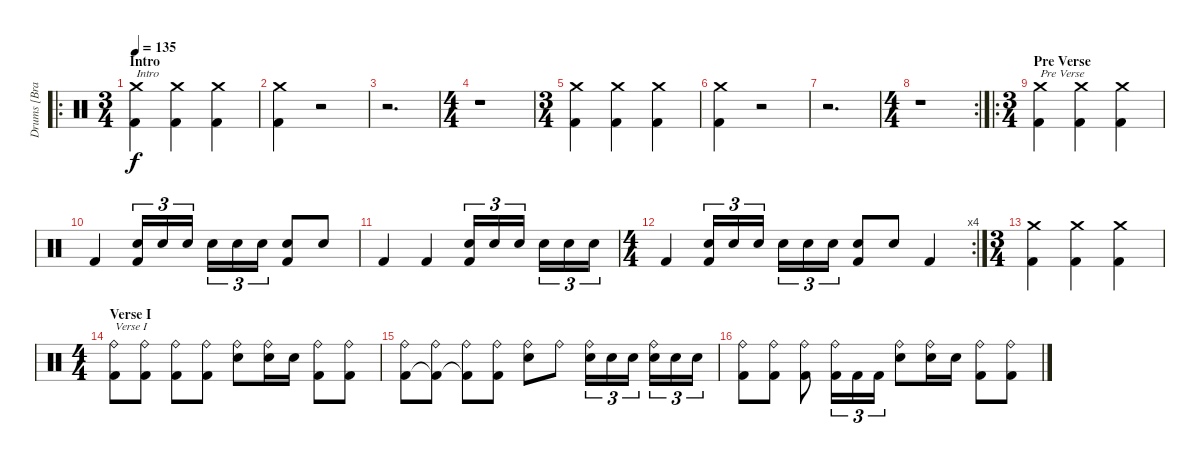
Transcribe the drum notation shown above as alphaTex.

\track ("Drums [Bran Dailor]" "Drums [Bra") {instrument percussion}
\staff {score}
\articulation defaults
\ro
\ts (3 4)
\section ("" "Intro")
\tempo 135
\clef neutral
\ks c
("Crash medium (hit)" "Kick (hit) 2").4{txt "Intro" dy f} ("Crash medium (hit)" "Kick (hit) 2").4 ("Crash medium (hit)" "Kick (hit) 2").4 |
("Crash medium (hit)" "Kick (hit) 2").4{volume 0} r.2 |
r.2{d} |
\ts (4 4)
r.1 |
\ts (3 4)
("Crash medium (hit)" "Kick (hit) 2").4{volume 14} ("Crash medium (hit)" "Kick (hit) 2").4 ("Crash medium (hit)" "Kick (hit) 2").4 |
("Crash medium (hit)" "Kick (hit) 2").4 r.2 |
r.2{d} |
\rc 2
\ts (4 4)
r.1 |
\ro
\ts (3 4)
\section ("" "Pre Verse")
("Crash medium (hit)" "Kick (hit) 2").4{txt "Pre Verse"} ("Crash medium (hit)" "Kick (hit) 2").4 ("Crash medium (hit)" "Kick (hit) 2").4 |
"Kick (hit) 2".4 ("Electric Snare (hit)" "Kick (hit) 2").16{tu (3 2)} "Electric Snare (hit)".16{tu (3 2)} "Electric Snare (hit)".16{tu (3 2)} "Electric Snare (hit)".16{tu (3 2)} "Electric Snare (hit)".16{tu (3 2)} "Electric Snare (hit)".16{tu (3 2)} ("Electric Snare (hit)" "Kick (hit) 2").8 "Electric Snare (hit)".8 |
"Kick (hit) 2".4 "Kick (hit) 2".4 ("Electric Snare (hit)" "Kick (hit) 2").16{tu (3 2)} "Electric Snare (hit)".16{tu (3 2)} "Electric Snare (hit)".16{tu (3 2)} "Electric Snare (hit)".16{tu (3 2)} "Electric Snare (hit)".16{tu (3 2)} "Electric Snare (hit)".16{tu (3 2)} |
\rc 4
\ts (4 4)
"Kick (hit) 2".4 ("Electric Snare (hit)" "Kick (hit) 2").16{tu (3 2)} "Electric Snare (hit)".16{tu (3 2)} "Electric Snare (hit)".16{tu (3 2)} "Electric Snare (hit)".16{tu (3 2)} "Electric Snare (hit)".16{tu (3 2)} "Electric Snare (hit)".16{tu (3 2)} ("Electric Snare (hit)" "Kick (hit) 2").8 "Electric Snare (hit)".8 "Kick (hit) 2".4 |
\ts (3 4)
("Crash medium (hit)" "Kick (hit) 2").4 ("Crash medium (hit)" "Kick (hit) 2").4 ("Crash medium (hit)" "Kick (hit) 2").4 |
\ts (4 4)
\section ("" "Verse I")
("Ride (bell)" "Kick (hit) 2").8{txt "Verse I"} ("Ride (bell)" "Kick (hit) 2").8 ("Ride (bell)" "Kick (hit) 2").8 ("Ride (bell)" "Kick (hit) 2").8 ("Ride (bell)" "Electric Snare (hit)").8 ("Ride (bell)" "Electric Snare (hit)").16 "Electric Snare (hit)".16 ("Ride (bell)" "Kick (hit) 2").8 ("Ride (bell)" "Kick (hit) 2").8 |
("Ride (bell)" "Kick (hit) 2").8 ("Ride (bell)" "Kick (hit) 2"{t}).8 ("Ride (bell)" "Kick (hit) 2"{t}).8 ("Ride (bell)" "Kick (hit) 2").8 ("Ride (bell)" "Electric Snare (hit)").8 "Ride (bell)".8 ("Ride (bell)" "Electric Snare (hit)").16{tu (3 2)} "Electric Snare (hit)".16{tu (3 2)} "Electric Snare (hit)".16{tu (3 2)} ("Ride (bell)" "Electric Snare (hit)").16{tu (3 2)} "Electric Snare (hit)".16{tu (3 2)} "Electric Snare (hit)".16{tu (3 2)} |
("Ride (bell)" "Kick (hit) 2").8 ("Ride (bell)" "Kick (hit) 2").8 ("Ride (bell)" "Kick (hit) 2").8 ("Ride (bell)" "Kick (hit) 2").16{tu (3 2)} "Kick (hit) 2".16{tu (3 2)} "Kick (hit) 2".16{tu (3 2)} ("Ride (bell)" "Electric Snare (hit)").8 ("Ride (bell)" "Electric Snare (hit)").16 "Electric Snare (hit)".16 ("Ride (bell)" "Kick (hit) 2").8 ("Ride (bell)" "Kick (hit) 2").8
